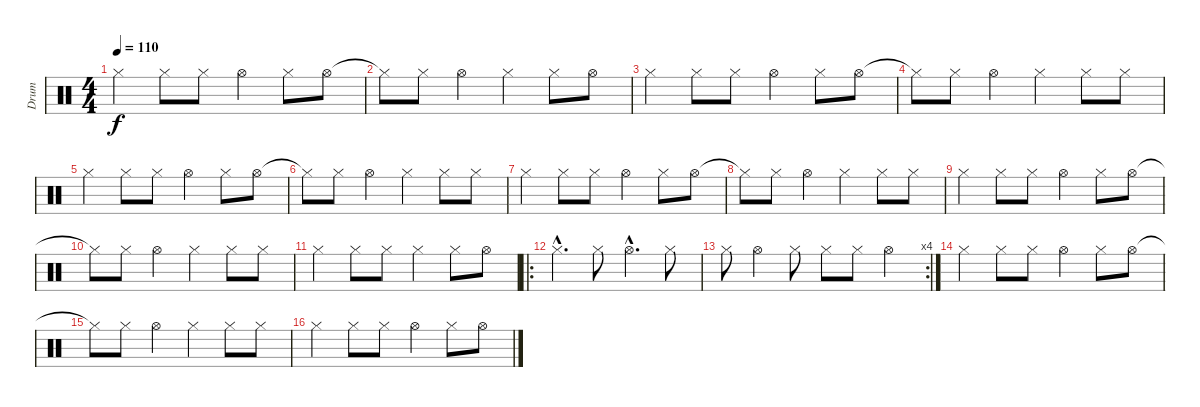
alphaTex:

\track ("Drum" "Drum") {instrument percussion}
\staff {score}
\articulation defaults
\ts (4 4)
\tempo 110
\clef neutral
\ks c "Hi-Hat (closed)".4{dy f} "Hi-Hat (closed)".8 "Hi-Hat (closed)".8 "Hi-Hat (open)".4 "Hi-Hat (closed)".8 "Hi-Hat (open)".8
|
"Hi-Hat (closed)"{t}.8 "Hi-Hat (closed)".8 "Hi-Hat (open)".4 "Hi-Hat (closed)".4 "Hi-Hat (closed)".8 "Hi-Hat (open)".8 |
"Hi-Hat (closed)".4 "Hi-Hat (closed)".8 "Hi-Hat (closed)".8 "Hi-Hat (open)".4 "Hi-Hat (closed)".8 "Hi-Hat (open)".8 |
"Hi-Hat (closed)"{t}.8 "Hi-Hat (closed)".8 "Hi-Hat (open)".4 "Hi-Hat (closed)".4 "Hi-Hat (closed)".8 "Hi-Hat (closed)".8 |
"Hi-Hat (closed)".4 "Hi-Hat (closed)".8 "Hi-Hat (closed)".8 "Hi-Hat (open)".4 "Hi-Hat (closed)".8 "Hi-Hat (open)".8 |
"Hi-Hat (closed)"{t}.8 "Hi-Hat (closed)".8 "Hi-Hat (open)".4 "Hi-Hat (closed)".4 "Hi-Hat (closed)".8 "Hi-Hat (closed)".8 |
"Hi-Hat (closed)".4 "Hi-Hat (closed)".8 "Hi-Hat (closed)".8 "Hi-Hat (open)".4 "Hi-Hat (closed)".8 "Hi-Hat (open)".8 |
"Hi-Hat (closed)"{t}.8 "Hi-Hat (closed)".8 "Hi-Hat (open)".4 "Hi-Hat (closed)".4 "Hi-Hat (closed)".8 "Hi-Hat (closed)".8 |
"Hi-Hat (closed)".4 "Hi-Hat (closed)".8 "Hi-Hat (closed)".8 "Hi-Hat (open)".4 "Hi-Hat (closed)".8 "Hi-Hat (open)".8 |
"Hi-Hat (closed)"{t}.8 "Hi-Hat (closed)".8 "Hi-Hat (open)".4 "Hi-Hat (closed)".4 "Hi-Hat (closed)".8 "Hi-Hat (closed)".8 |
"Hi-Hat (closed)".4 "Hi-Hat (closed)".8 "Hi-Hat (closed)".8 "Hi-Hat (closed)".4 "Hi-Hat (closed)".8 "Hi-Hat (open)".8 |
\ro "Hi-Hat (closed)"{hac}.4{d} "Hi-Hat (closed)".8 "Hi-Hat (open)"{hac}.4{d} "Hi-Hat (closed)".8
|
\rc 4 "Hi-Hat (closed)".8 "Hi-Hat (open)".4 "Hi-Hat (closed)".8 "Hi-Hat (closed)".8 "Hi-Hat (closed)".8 "Hi-Hat (open)".4
|
"Hi-Hat (closed)".4 "Hi-Hat (closed)".8 "Hi-Hat (closed)".8 "Hi-Hat (open)".4 "Hi-Hat (closed)".8 "Hi-Hat (open)".8 |
"Hi-Hat (closed)"{t}.8 "Hi-Hat (closed)".8 "Hi-Hat (open)".4 "Hi-Hat (closed)".4 "Hi-Hat (closed)".8 "Hi-Hat (closed)".8 |
"Hi-Hat (closed)".4 "Hi-Hat (closed)".8 "Hi-Hat (closed)".8 "Hi-Hat (open)".4 "Hi-Hat (closed)".8 "Hi-Hat (open)".8
